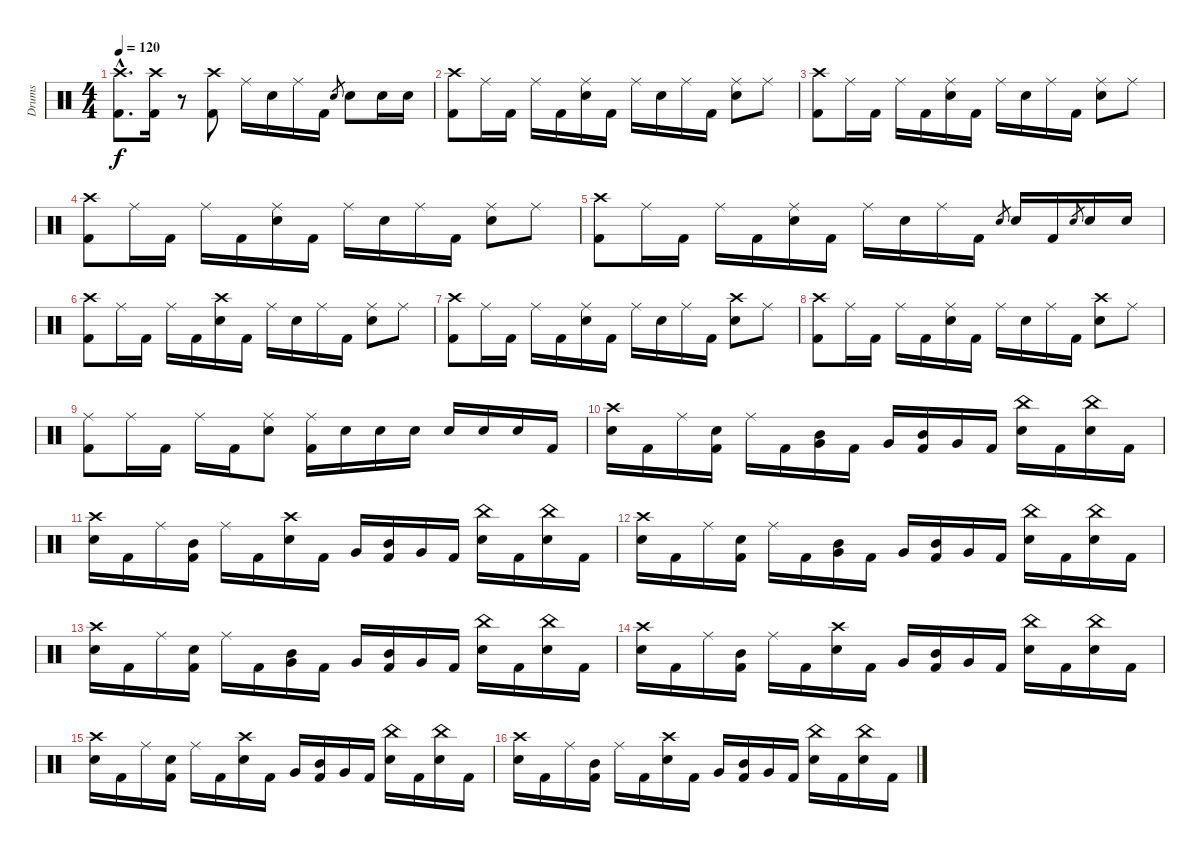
\track ("Drums" "Drums") {instrument percussion}
\staff {score}
\articulation defaults
\ts (4 4)
\tempo 120
\clef neutral
\ks c
("Crash high (hit)"{hac} "Kick (hit) 2"{hac}).8{d dy f} ("Crash high (hit)" "Kick (hit) 2").16 r.8 ("Crash high (hit)" "Kick (hit) 2").8 "Ride (middle)".16 "Electric Snare (hit)".16 "Ride (middle)".16 "Kick (hit) 2".16 "Electric Snare (hit)".8{gr} "Electric Snare (hit)".8 "Electric Snare (hit)".16 "Electric Snare (hit)".16 |
("Crash high (hit)" "Kick (hit) 2").8 "Ride (middle)".16 "Kick (hit) 2".16 "Ride (middle)".16 "Kick (hit) 2".16 ("Ride (middle)" "Electric Snare (hit)").16 "Kick (hit) 2".16 "Ride (middle)".16 "Electric Snare (hit)".16 "Ride (middle)".16 "Kick (hit) 2".16 ("Ride (middle)" "Electric Snare (hit)").8 "Ride (middle)".8 |
("Crash high (hit)" "Kick (hit) 2").8 "Ride (middle)".16 "Kick (hit) 2".16 "Ride (middle)".16 "Kick (hit) 2".16 ("Ride (middle)" "Electric Snare (hit)").16 "Kick (hit) 2".16 "Ride (middle)".16 "Electric Snare (hit)".16 "Ride (middle)".16 "Kick (hit) 2".16 ("Ride (middle)" "Electric Snare (hit)").8 "Ride (middle)".8 |
("Crash high (hit)" "Kick (hit) 2").8 "Ride (middle)".16 "Kick (hit) 2".16 "Ride (middle)".16 "Kick (hit) 2".16 ("Ride (middle)" "Electric Snare (hit)").16 "Kick (hit) 2".16 "Ride (middle)".16 "Electric Snare (hit)".16 "Ride (middle)".16 "Kick (hit) 2".16 ("Ride (middle)" "Electric Snare (hit)").8 "Ride (middle)".8 |
("Crash high (hit)" "Kick (hit) 2").8 "Ride (middle)".16 "Kick (hit) 2".16 "Ride (middle)".16 "Kick (hit) 2".16 ("Ride (middle)" "Electric Snare (hit)").16 "Kick (hit) 2".16 "Ride (middle)".16 "Electric Snare (hit)".16 "Ride (middle)".16 "Kick (hit) 2".16 "Electric Snare (hit)".8{gr} "Electric Snare (hit)".16 "Kick (hit) 2".16 "Electric Snare (hit)".8{gr} "Electric Snare (hit)".16 "Electric Snare (hit)".16 |
("Crash high (hit)" "Kick (hit) 2").8 "Ride (middle)".16 "Kick (hit) 2".16 "Ride (middle)".16 "Kick (hit) 2".16 ("Crash high (hit)" "Electric Snare (hit)").16 "Kick (hit) 2".16 "Ride (middle)".16 "Electric Snare (hit)".16 "Ride (middle)".16 "Kick (hit) 2".16 ("Ride (middle)" "Electric Snare (hit)").8 "Ride (middle)".8 |
("Crash high (hit)" "Kick (hit) 2").8 "Ride (middle)".16 "Kick (hit) 2".16 "Ride (middle)".16 "Kick (hit) 2".16 ("Ride (middle)" "Electric Snare (hit)").16 "Kick (hit) 2".16 "Ride (middle)".16 "Electric Snare (hit)".16 "Ride (middle)".16 "Kick (hit) 2".16 ("Crash high (hit)" "Electric Snare (hit)").8 "Ride (middle)".8 |
("Crash high (hit)" "Kick (hit) 2").8 "Ride (middle)".16 "Kick (hit) 2".16 "Ride (middle)".16 "Kick (hit) 2".16 ("Ride (middle)" "Electric Snare (hit)").16 "Kick (hit) 2".16 "Ride (middle)".16 "Electric Snare (hit)".16 "Ride (middle)".16 "Kick (hit) 2".16 ("Crash high (hit)" "Electric Snare (hit)").8 "Ride (middle)".8 |
("Ride (middle)" "Kick (hit) 2").8 "Ride (middle)".16 "Kick (hit) 2".16 "Ride (middle)".16 "Kick (hit) 2".16 ("Ride (middle)" "Electric Snare (hit)").8 ("Ride (middle)" "Kick (hit) 2").16 "Electric Snare (hit)".16 "Electric Snare (hit)".16 "Electric Snare (hit)".16 "Electric Snare (hit)".16 "Electric Snare (hit)".16 "Electric Snare (hit)".16 "Kick (hit) 2".16 |
("Crash high (hit)" "Electric Snare (hit)").16 "Kick (hit) 2".16 "Ride (middle)".16 ("Electric Snare (hit)" "Kick (hit) 2").16 "Ride (middle)".16 "Kick (hit) 2".16 ("Mid Tom (hit)" "Very Low Tom (hit)").16 "Kick (hit) 2".16 "Very Low Tom (hit)".16 ("Mid Tom (hit)" "Kick (hit) 2").16 "Very Low Tom (hit)".16 "Kick (hit) 2".16 ("China (hit)" "Electric Snare (hit)").16 "Kick (hit) 2".16 ("China (hit)" "Electric Snare (hit)").16 "Kick (hit) 2".16 |
("Crash high (hit)" "Electric Snare (hit)").16 "Kick (hit) 2".16 "Ride (middle)".16 ("Mid Tom (hit)" "Kick (hit) 2").16 "Ride (middle)".16 "Kick (hit) 2".16 ("Crash high (hit)" "Electric Snare (hit)").16 "Kick (hit) 2".16 "Very Low Tom (hit)".16 ("Mid Tom (hit)" "Kick (hit) 2").16 "Very Low Tom (hit)".16 "Kick (hit) 2".16 ("China (hit)" "Electric Snare (hit)").16 "Kick (hit) 2".16 ("China (hit)" "Electric Snare (hit)").16 "Kick (hit) 2".16 |
("Crash high (hit)" "Electric Snare (hit)").16 "Kick (hit) 2".16 "Ride (middle)".16 ("Electric Snare (hit)" "Kick (hit) 2").16 "Ride (middle)".16 "Kick (hit) 2".16 ("Mid Tom (hit)" "Very Low Tom (hit)").16 "Kick (hit) 2".16 "Very Low Tom (hit)".16 ("Mid Tom (hit)" "Kick (hit) 2").16 "Very Low Tom (hit)".16 "Kick (hit) 2".16 ("China (hit)" "Electric Snare (hit)").16 "Kick (hit) 2".16 ("China (hit)" "Electric Snare (hit)").16 "Kick (hit) 2".16 |
("Crash high (hit)" "Electric Snare (hit)").16 "Kick (hit) 2".16 "Ride (middle)".16 ("Electric Snare (hit)" "Kick (hit) 2").16 "Ride (middle)".16 "Kick (hit) 2".16 ("Mid Tom (hit)" "Very Low Tom (hit)").16 "Kick (hit) 2".16 "Very Low Tom (hit)".16 ("Mid Tom (hit)" "Kick (hit) 2").16 "Very Low Tom (hit)".16 "Kick (hit) 2".16 ("China (hit)" "Electric Snare (hit)").16 "Kick (hit) 2".16 ("China (hit)" "Electric Snare (hit)").16 "Kick (hit) 2".16 |
("Crash high (hit)" "Electric Snare (hit)").16 "Kick (hit) 2".16 "Ride (middle)".16 ("Mid Tom (hit)" "Kick (hit) 2").16 "Ride (middle)".16 "Kick (hit) 2".16 ("Crash high (hit)" "Electric Snare (hit)").16 "Kick (hit) 2".16 "Very Low Tom (hit)".16 ("Mid Tom (hit)" "Kick (hit) 2").16 "Very Low Tom (hit)".16 "Kick (hit) 2".16 ("China (hit)" "Electric Snare (hit)").16 "Kick (hit) 2".16 ("China (hit)" "Electric Snare (hit)").16 "Kick (hit) 2".16 |
("Crash high (hit)" "Electric Snare (hit)").16 "Kick (hit) 2".16 "Ride (middle)".16 ("Electric Snare (hit)" "Kick (hit) 2").16 "Ride (middle)".16 "Kick (hit) 2".16 ("Crash high (hit)" "Electric Snare (hit)").16 "Kick (hit) 2".16 "Very Low Tom (hit)".16 ("Mid Tom (hit)" "Kick (hit) 2").16 "Very Low Tom (hit)".16 "Kick (hit) 2".16 ("China (hit)" "Electric Snare (hit)").16 "Kick (hit) 2".16 ("China (hit)" "Electric Snare (hit)").16 "Kick (hit) 2".16 |
("Crash high (hit)" "Electric Snare (hit)").16 "Kick (hit) 2".16 "Ride (middle)".16 ("Mid Tom (hit)" "Kick (hit) 2").16 "Ride (middle)".16 "Kick (hit) 2".16 ("Crash high (hit)" "Electric Snare (hit)").16 "Kick (hit) 2".16 "Very Low Tom (hit)".16 ("Mid Tom (hit)" "Kick (hit) 2").16 "Very Low Tom (hit)".16 "Kick (hit) 2".16 ("China (hit)" "Electric Snare (hit)").16 "Kick (hit) 2".16 ("China (hit)" "Electric Snare (hit)").16 "Kick (hit) 2".16
